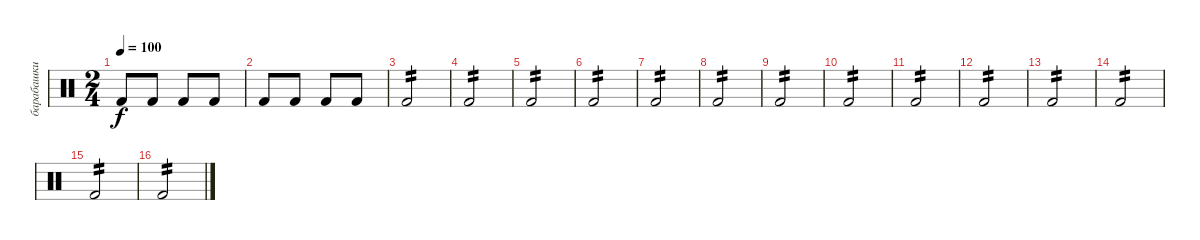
\track ("барабашки low" "барабашки ") {instrument percussion}
\staff {score}
\articulation defaults
\ts (2 4)
\tempo 100
\clef neutral
\ks c "Kick (hit) 2".8{dy f} "Kick (hit) 2".8 "Kick (hit) 2".8 "Kick (hit) 2".8
|
"Kick (hit) 2".8 "Kick (hit) 2".8 "Kick (hit) 2".8 "Kick (hit) 2".8 |
"Kick (hit) 2".2{tp 2} |
"Kick (hit) 2".2{tp 2} |
"Kick (hit) 2".2{tp 2} |
"Kick (hit) 2".2{tp 2} |
"Kick (hit) 2".2{tp 2} |
"Kick (hit) 2".2{tp 2} |
"Kick (hit) 2".2{tp 2} |
"Kick (hit) 2".2{tp 2} |
"Kick (hit) 2".2{tp 2} |
"Kick (hit) 2".2{tp 2} |
"Kick (hit) 2".2{tp 2} |
"Kick (hit) 2".2{tp 2} |
"Kick (hit) 2".2{tp 2} |
"Kick (hit) 2".2{tp 2}
